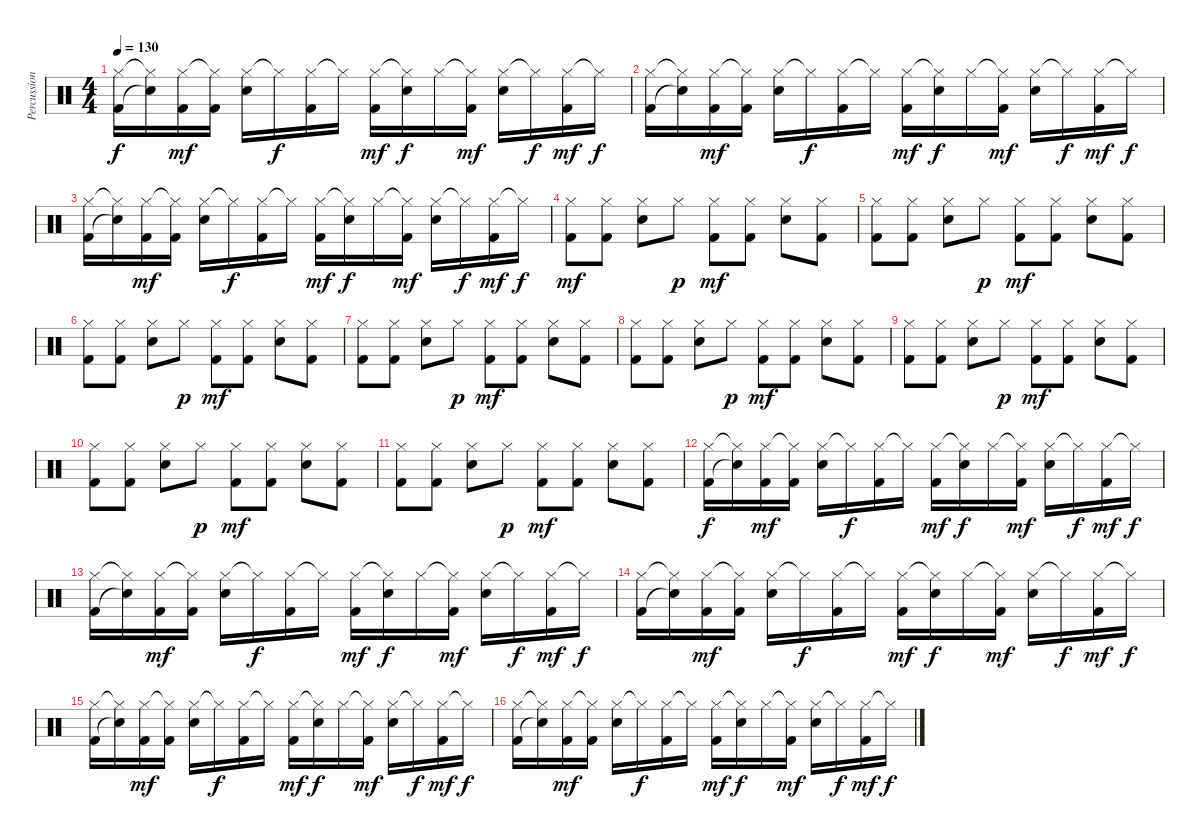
\track ("Percussion" "Percussion") {instrument percussion}
\staff {score}
\articulation defaults
\ts (4 4)
\tempo 130
\clef neutral
\ks c
("Hi-Hat (closed)" "Kick (hit) 2").16{dy f} ("Hi-Hat (closed)"{t} "Snare (hit)"{t}).16 ("Hi-Hat (closed)" "Kick (hit) 2").16{dy mf} ("Hi-Hat (closed)"{t} "Kick (hit) 2").16 ("Hi-Hat (closed)" "Snare (hit) 2").16 "Hi-Hat (closed)"{t}.16{dy f} ("Hi-Hat (closed)" "Kick (hit) 2").16 "Hi-Hat (closed)"{t}.16 ("Hi-Hat (closed)" "Kick (hit) 2").16{dy mf} ("Hi-Hat (closed)"{t} "Snare (hit) 2").16{dy f} "Hi-Hat (closed)".16 ("Hi-Hat (closed)"{t} "Kick (hit) 2").16{dy mf} ("Hi-Hat (closed)" "Snare (hit) 2").16 "Hi-Hat (closed)"{t}.16{dy f} ("Hi-Hat (closed)" "Kick (hit) 2").16{dy mf} "Hi-Hat (closed)"{t}.16{dy f} |
("Hi-Hat (closed)" "Kick (hit) 2").16 ("Hi-Hat (closed)"{t} "Snare (hit)"{t}).16 ("Hi-Hat (closed)" "Kick (hit) 2").16{dy mf} ("Hi-Hat (closed)"{t} "Kick (hit) 2").16 ("Hi-Hat (closed)" "Snare (hit) 2").16 "Hi-Hat (closed)"{t}.16{dy f} ("Hi-Hat (closed)" "Kick (hit) 2").16 "Hi-Hat (closed)"{t}.16 ("Hi-Hat (closed)" "Kick (hit) 2").16{dy mf} ("Hi-Hat (closed)"{t} "Snare (hit) 2").16{dy f} "Hi-Hat (closed)".16 ("Hi-Hat (closed)"{t} "Kick (hit) 2").16{dy mf} ("Hi-Hat (closed)" "Snare (hit) 2").16 "Hi-Hat (closed)"{t}.16{dy f} ("Hi-Hat (closed)" "Kick (hit) 2").16{dy mf} "Hi-Hat (closed)"{t}.16{dy f} |
("Hi-Hat (closed)" "Kick (hit) 2").16 ("Hi-Hat (closed)"{t} "Snare (hit)"{t}).16 ("Hi-Hat (closed)" "Kick (hit) 2").16{dy mf} ("Hi-Hat (closed)"{t} "Kick (hit) 2").16 ("Hi-Hat (closed)" "Snare (hit) 2").16 "Hi-Hat (closed)"{t}.16{dy f} ("Hi-Hat (closed)" "Kick (hit) 2").16 "Hi-Hat (closed)"{t}.16 ("Hi-Hat (closed)" "Kick (hit) 2").16{dy mf} ("Hi-Hat (closed)"{t} "Snare (hit) 2").16{dy f} "Hi-Hat (closed)".16 ("Hi-Hat (closed)"{t} "Kick (hit) 2").16{dy mf} ("Hi-Hat (closed)" "Snare (hit) 2").16 "Hi-Hat (closed)"{t}.16{dy f} ("Hi-Hat (closed)" "Kick (hit) 2").16{dy mf} "Hi-Hat (closed)"{t}.16{dy f} |
("Hi-Hat (closed)" "Kick (hit) 2").8{dy mf} ("Hi-Hat (closed)" "Kick (hit) 2").8 ("Hi-Hat (closed)" "Snare (hit) 2").8 "Hi-Hat (closed)".8{dy p} ("Hi-Hat (closed)" "Kick (hit) 2").8{dy mf} ("Hi-Hat (closed)" "Kick (hit) 2").8 ("Hi-Hat (closed)" "Snare (hit) 2").8 ("Hi-Hat (closed)" "Kick (hit) 2").8 |
("Hi-Hat (closed)" "Kick (hit) 2").8 ("Hi-Hat (closed)" "Kick (hit) 2").8 ("Hi-Hat (closed)" "Snare (hit) 2").8 "Hi-Hat (closed)".8{dy p} ("Hi-Hat (closed)" "Kick (hit) 2").8{dy mf} ("Hi-Hat (closed)" "Kick (hit) 2").8 ("Hi-Hat (closed)" "Snare (hit) 2").8 ("Hi-Hat (closed)" "Kick (hit) 2").8 |
("Hi-Hat (closed)" "Kick (hit) 2").8 ("Hi-Hat (closed)" "Kick (hit) 2").8 ("Hi-Hat (closed)" "Snare (hit) 2").8 "Hi-Hat (closed)".8{dy p} ("Hi-Hat (closed)" "Kick (hit) 2").8{dy mf} ("Hi-Hat (closed)" "Kick (hit) 2").8 ("Hi-Hat (closed)" "Snare (hit) 2").8 ("Hi-Hat (closed)" "Kick (hit) 2").8 |
("Hi-Hat (closed)" "Kick (hit) 2").8 ("Hi-Hat (closed)" "Kick (hit) 2").8 ("Hi-Hat (closed)" "Snare (hit) 2").8 "Hi-Hat (closed)".8{dy p} ("Hi-Hat (closed)" "Kick (hit) 2").8{dy mf} ("Hi-Hat (closed)" "Kick (hit) 2").8 ("Hi-Hat (closed)" "Snare (hit) 2").8 ("Hi-Hat (closed)" "Kick (hit) 2").8 |
("Hi-Hat (closed)" "Kick (hit) 2").8 ("Hi-Hat (closed)" "Kick (hit) 2").8 ("Hi-Hat (closed)" "Snare (hit) 2").8 "Hi-Hat (closed)".8{dy p} ("Hi-Hat (closed)" "Kick (hit) 2").8{dy mf} ("Hi-Hat (closed)" "Kick (hit) 2").8 ("Hi-Hat (closed)" "Snare (hit) 2").8 ("Hi-Hat (closed)" "Kick (hit) 2").8 |
("Hi-Hat (closed)" "Kick (hit) 2").8 ("Hi-Hat (closed)" "Kick (hit) 2").8 ("Hi-Hat (closed)" "Snare (hit) 2").8 "Hi-Hat (closed)".8{dy p} ("Hi-Hat (closed)" "Kick (hit) 2").8{dy mf} ("Hi-Hat (closed)" "Kick (hit) 2").8 ("Hi-Hat (closed)" "Snare (hit) 2").8 ("Hi-Hat (closed)" "Kick (hit) 2").8 |
("Hi-Hat (closed)" "Kick (hit) 2").8 ("Hi-Hat (closed)" "Kick (hit) 2").8 ("Hi-Hat (closed)" "Snare (hit) 2").8 "Hi-Hat (closed)".8{dy p} ("Hi-Hat (closed)" "Kick (hit) 2").8{dy mf} ("Hi-Hat (closed)" "Kick (hit) 2").8 ("Hi-Hat (closed)" "Snare (hit) 2").8 ("Hi-Hat (closed)" "Kick (hit) 2").8 |
("Hi-Hat (closed)" "Kick (hit) 2").8 ("Hi-Hat (closed)" "Kick (hit) 2").8 ("Hi-Hat (closed)" "Snare (hit) 2").8 "Hi-Hat (closed)".8{dy p} ("Hi-Hat (closed)" "Kick (hit) 2").8{dy mf} ("Hi-Hat (closed)" "Kick (hit) 2").8 ("Hi-Hat (closed)" "Snare (hit) 2").8 ("Hi-Hat (closed)" "Kick (hit) 2").8 |
("Hi-Hat (closed)" "Kick (hit) 2").16{dy f} ("Hi-Hat (closed)"{t} "Snare (hit)"{t}).16 ("Hi-Hat (closed)" "Kick (hit) 2").16{dy mf} ("Hi-Hat (closed)"{t} "Kick (hit) 2").16 ("Hi-Hat (closed)" "Snare (hit) 2").16 "Hi-Hat (closed)"{t}.16{dy f} ("Hi-Hat (closed)" "Kick (hit) 2").16 "Hi-Hat (closed)"{t}.16 ("Hi-Hat (closed)" "Kick (hit) 2").16{dy mf} ("Hi-Hat (closed)"{t} "Snare (hit) 2").16{dy f} "Hi-Hat (closed)".16 ("Hi-Hat (closed)"{t} "Kick (hit) 2").16{dy mf} ("Hi-Hat (closed)" "Snare (hit) 2").16 "Hi-Hat (closed)"{t}.16{dy f} ("Hi-Hat (closed)" "Kick (hit) 2").16{dy mf} "Hi-Hat (closed)"{t}.16{dy f} |
("Hi-Hat (closed)" "Kick (hit) 2").16 ("Hi-Hat (closed)"{t} "Snare (hit)"{t}).16 ("Hi-Hat (closed)" "Kick (hit) 2").16{dy mf} ("Hi-Hat (closed)"{t} "Kick (hit) 2").16 ("Hi-Hat (closed)" "Snare (hit) 2").16 "Hi-Hat (closed)"{t}.16{dy f} ("Hi-Hat (closed)" "Kick (hit) 2").16 "Hi-Hat (closed)"{t}.16 ("Hi-Hat (closed)" "Kick (hit) 2").16{dy mf} ("Hi-Hat (closed)"{t} "Snare (hit) 2").16{dy f} "Hi-Hat (closed)".16 ("Hi-Hat (closed)"{t} "Kick (hit) 2").16{dy mf} ("Hi-Hat (closed)" "Snare (hit) 2").16 "Hi-Hat (closed)"{t}.16{dy f} ("Hi-Hat (closed)" "Kick (hit) 2").16{dy mf} "Hi-Hat (closed)"{t}.16{dy f} |
("Hi-Hat (closed)" "Kick (hit) 2").16 ("Hi-Hat (closed)"{t} "Snare (hit)"{t}).16 ("Hi-Hat (closed)" "Kick (hit) 2").16{dy mf} ("Hi-Hat (closed)"{t} "Kick (hit) 2").16 ("Hi-Hat (closed)" "Snare (hit) 2").16 "Hi-Hat (closed)"{t}.16{dy f} ("Hi-Hat (closed)" "Kick (hit) 2").16 "Hi-Hat (closed)"{t}.16 ("Hi-Hat (closed)" "Kick (hit) 2").16{dy mf} ("Hi-Hat (closed)"{t} "Snare (hit) 2").16{dy f} "Hi-Hat (closed)".16 ("Hi-Hat (closed)"{t} "Kick (hit) 2").16{dy mf} ("Hi-Hat (closed)" "Snare (hit) 2").16 "Hi-Hat (closed)"{t}.16{dy f} ("Hi-Hat (closed)" "Kick (hit) 2").16{dy mf} "Hi-Hat (closed)"{t}.16{dy f} |
("Hi-Hat (closed)" "Kick (hit) 2").16 ("Hi-Hat (closed)"{t} "Snare (hit)"{t}).16 ("Hi-Hat (closed)" "Kick (hit) 2").16{dy mf} ("Hi-Hat (closed)"{t} "Kick (hit) 2").16 ("Hi-Hat (closed)" "Snare (hit) 2").16 "Hi-Hat (closed)"{t}.16{dy f} ("Hi-Hat (closed)" "Kick (hit) 2").16 "Hi-Hat (closed)"{t}.16 ("Hi-Hat (closed)" "Kick (hit) 2").16{dy mf} ("Hi-Hat (closed)"{t} "Snare (hit) 2").16{dy f} "Hi-Hat (closed)".16 ("Hi-Hat (closed)"{t} "Kick (hit) 2").16{dy mf} ("Hi-Hat (closed)" "Snare (hit) 2").16 "Hi-Hat (closed)"{t}.16{dy f} ("Hi-Hat (closed)" "Kick (hit) 2").16{dy mf} "Hi-Hat (closed)"{t}.16{dy f} |
("Hi-Hat (closed)" "Kick (hit) 2").16 ("Hi-Hat (closed)"{t} "Snare (hit)"{t}).16 ("Hi-Hat (closed)" "Kick (hit) 2").16{dy mf} ("Hi-Hat (closed)"{t} "Kick (hit) 2").16 ("Hi-Hat (closed)" "Snare (hit) 2").16 "Hi-Hat (closed)"{t}.16{dy f} ("Hi-Hat (closed)" "Kick (hit) 2").16 "Hi-Hat (closed)"{t}.16 ("Hi-Hat (closed)" "Kick (hit) 2").16{dy mf} ("Hi-Hat (closed)"{t} "Snare (hit) 2").16{dy f} "Hi-Hat (closed)".16 ("Hi-Hat (closed)"{t} "Kick (hit) 2").16{dy mf} ("Hi-Hat (closed)" "Snare (hit) 2").16 "Hi-Hat (closed)"{t}.16{dy f} ("Hi-Hat (closed)" "Kick (hit) 2").16{dy mf} "Hi-Hat (closed)"{t}.16{dy f}
